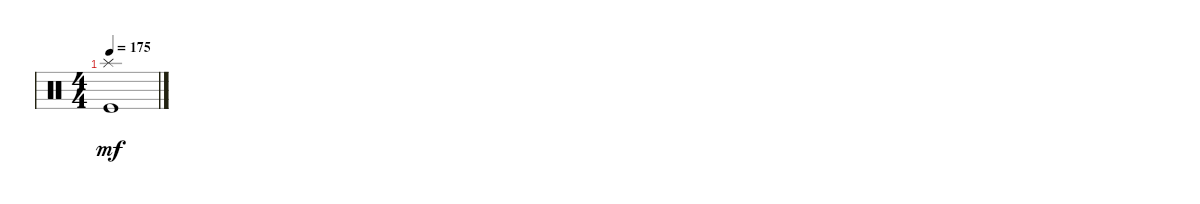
\defaultSystemsLayout 4
\bracketExtendMode nobrackets
\singleTrackTrackNamePolicy hidden
\multiTrackTrackNamePolicy hidden
\firstSystemTrackNameOrientation horizontal
\otherSystemsTrackNameOrientation horizontal
\track ("Drumkit" "Drums") {instrument percussion}
\staff {score}
\articulation defaults
\ts (4 4)
\tempo 175
\clef neutral
\ks c
("Kick (hit)" "Splash (hit)").1{dy mf}
